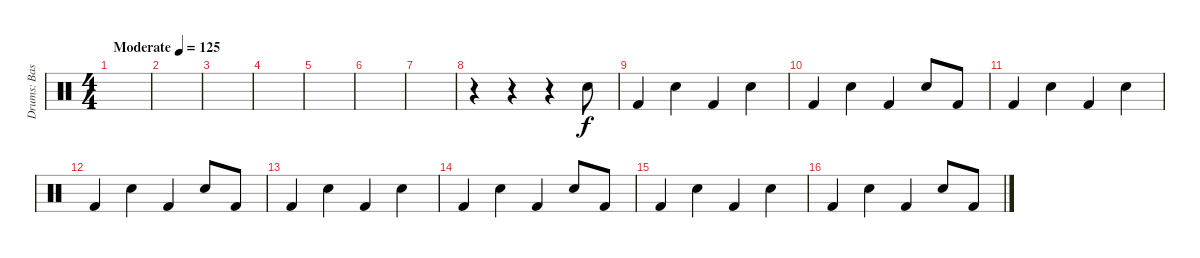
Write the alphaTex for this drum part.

\track ("Drums: Bass, Snare" "Drums: Bas") {instrument percussion}
\staff {score}
\articulation defaults
\ts (4 4)
\tempo (125 "Moderate")
\clef neutral
\ks c
|
|
|
|
|
|
|
r.4 r.4 r.4 "Electric Snare (hit)".8 |
"Kick (hit) 2".4 "Electric Snare (hit)".4 "Kick (hit) 2".4 "Electric Snare (hit)".4 |
"Kick (hit) 2".4 "Electric Snare (hit)".4 "Kick (hit) 2".4 "Electric Snare (hit)".8 "Kick (hit) 2".8 |
"Kick (hit) 2".4 "Electric Snare (hit)".4 "Kick (hit) 2".4 "Electric Snare (hit)".4 |
"Kick (hit) 2".4 "Electric Snare (hit)".4 "Kick (hit) 2".4 "Electric Snare (hit)".8 "Kick (hit) 2".8 |
"Kick (hit) 2".4 "Electric Snare (hit)".4 "Kick (hit) 2".4 "Electric Snare (hit)".4 |
"Kick (hit) 2".4 "Electric Snare (hit)".4 "Kick (hit) 2".4 "Electric Snare (hit)".8 "Kick (hit) 2".8 |
"Kick (hit) 2".4 "Electric Snare (hit)".4 "Kick (hit) 2".4 "Electric Snare (hit)".4 |
"Kick (hit) 2".4 "Electric Snare (hit)".4 "Kick (hit) 2".4 "Electric Snare (hit)".8 "Kick (hit) 2".8
